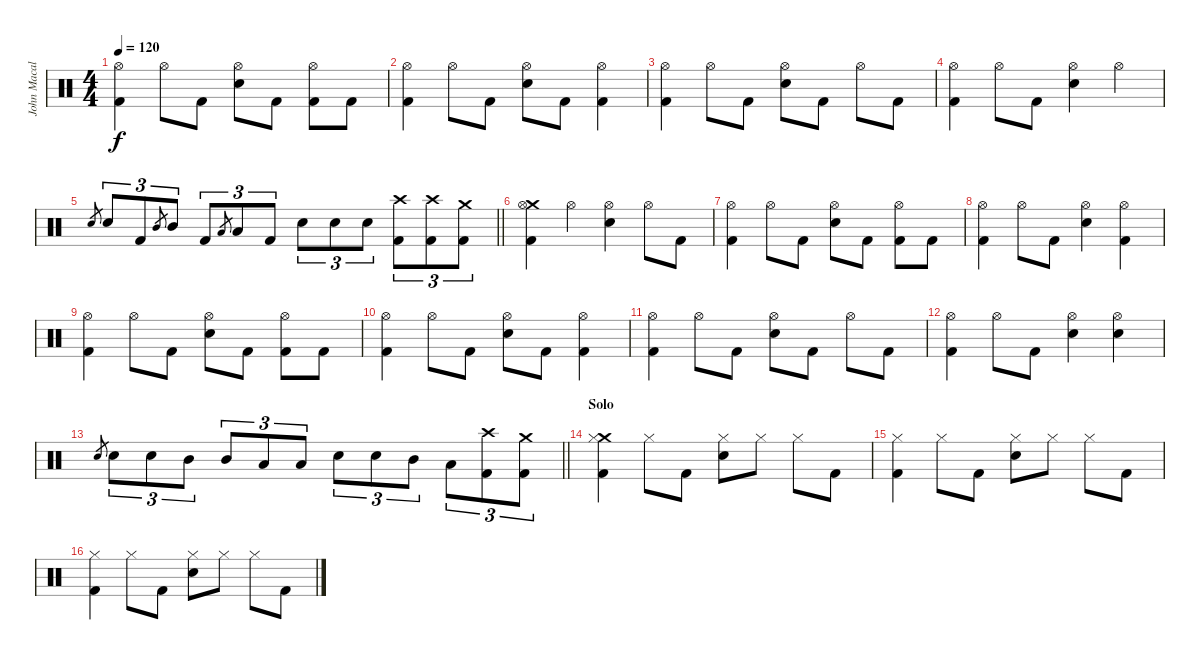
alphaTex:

\track ("John Macaluso" "John Macal") {instrument percussion}
\staff {score}
\articulation defaults
\ts (4 4)
\tempo 120
\clef neutral
\ks c
("Hi-Hat (open)" "Kick (hit) 2").4{dy f} "Hi-Hat (open)".8 "Kick (hit) 2".8 ("Hi-Hat (open)" "Snare (hit) 2").8 "Kick (hit) 2".8 ("Hi-Hat (open)" "Kick (hit) 2").8 "Kick (hit) 2".8 |
("Hi-Hat (open)" "Kick (hit) 2").4 "Hi-Hat (open)".8 "Kick (hit) 2".8 ("Hi-Hat (open)" "Snare (hit) 2").8 "Kick (hit) 2".8 ("Hi-Hat (open)" "Kick (hit) 2").4 |
("Hi-Hat (open)" "Kick (hit) 2").4 "Hi-Hat (open)".8 "Kick (hit) 2".8 ("Hi-Hat (open)" "Snare (hit) 2").8 "Kick (hit) 2".8 "Hi-Hat (open)".8 "Kick (hit) 2".8 |
("Hi-Hat (open)" "Kick (hit) 2").4 "Hi-Hat (open)".8 "Kick (hit) 2".8 ("Hi-Hat (open)" "Snare (hit) 2").4 "Hi-Hat (open)".4 |
\barLineRight lightlight "Snare (hit) 2".8{gr} "Snare (hit) 2".8{tu (3 2)} "Kick (hit) 2".8{tu (3 2)} "Mid Tom (hit)".8{gr} "Mid Tom (hit)".8{tu (3 2)} "Kick (hit) 2".8{tu (3 2)} "Low Tom (hit)".8{gr} "Low Tom (hit)".8{tu (3 2)} "Kick (hit) 2".8{tu (3 2)} "Snare (hit) 2".8{tu (3 2)} "Snare (hit) 2".8{tu (3 2)} "Snare (hit) 2".8{tu (3 2)}
("Crash high (hit)" "Kick (hit) 2").8{tu (3 2)} ("Crash high (hit)" "Kick (hit) 2").8{tu (3 2)} ("Crash medium (hit)" "Kick (hit) 2").8{tu (3 2)} |
("Crash medium (hit)" "Hi-Hat (open)" "Kick (hit) 2").4 "Hi-Hat (open)".4 ("Hi-Hat (open)" "Snare (hit) 2").4 "Hi-Hat (open)".8 "Kick (hit) 2".8 |
("Hi-Hat (open)" "Kick (hit) 2").4 "Hi-Hat (open)".8 "Kick (hit) 2".8 ("Hi-Hat (open)" "Snare (hit) 2").8 "Kick (hit) 2".8 ("Hi-Hat (open)" "Kick (hit) 2").8 "Kick (hit) 2".8 |
("Hi-Hat (open)" "Kick (hit) 2").4 "Hi-Hat (open)".8 "Kick (hit) 2".8 ("Hi-Hat (open)" "Snare (hit) 2").4 ("Hi-Hat (open)" "Kick (hit) 2").4 |
("Hi-Hat (open)" "Kick (hit) 2").4 "Hi-Hat (open)".8 "Kick (hit) 2".8 ("Hi-Hat (open)" "Snare (hit) 2").8 "Kick (hit) 2".8 ("Hi-Hat (open)" "Kick (hit) 2").8 "Kick (hit) 2".8 |
("Hi-Hat (open)" "Kick (hit) 2").4 "Hi-Hat (open)".8 "Kick (hit) 2".8 ("Hi-Hat (open)" "Snare (hit) 2").8 "Kick (hit) 2".8 ("Hi-Hat (open)" "Kick (hit) 2").4 |
("Hi-Hat (open)" "Kick (hit) 2").4 "Hi-Hat (open)".8 "Kick (hit) 2".8 ("Hi-Hat (open)" "Snare (hit) 2").8 "Kick (hit) 2".8 "Hi-Hat (open)".8 "Kick (hit) 2".8 |
("Hi-Hat (open)" "Kick (hit) 2").4 "Hi-Hat (open)".8 "Kick (hit) 2".8 ("Hi-Hat (open)" "Snare (hit) 2").4 ("Hi-Hat (open)" "Snare (hit) 2").4 |
\barLineRight lightlight "Snare (hit) 2".8{gr} "Snare (hit) 2".8{tu (3 2)} "Snare (hit) 2".8{tu (3 2)} "Mid Tom (hit)".8{tu (3 2)} "Mid Tom (hit)".8{tu (3 2)} "Low Tom (hit)".8{tu (3 2)} "Low Tom (hit)".8{tu (3 2)} "Snare (hit) 2".8{tu (3 2)} "Snare (hit) 2".8{tu (3 2)} "Mid Tom (hit)".8{tu (3 2)} "Low Tom (hit)".8{tu (3 2)}
("Crash high (hit)" "Kick (hit) 2").8{tu (3 2)} ("Crash medium (hit)" "Kick (hit) 2").8{tu (3 2)} |
\section ("" "Solo")
("Crash medium (hit)" "Hi-Hat (closed)" "Kick (hit) 2").4 "Hi-Hat (closed)".8 "Kick (hit) 2".8 ("Hi-Hat (closed)" "Snare (hit) 2").8 "Hi-Hat (closed)".8 "Hi-Hat (closed)".8 "Kick (hit) 2".8 |
("Hi-Hat (closed)" "Kick (hit) 2").4 "Hi-Hat (closed)".8 "Kick (hit) 2".8 ("Hi-Hat (closed)" "Snare (hit) 2").8 "Hi-Hat (closed)".8 "Hi-Hat (closed)".8 "Kick (hit) 2".8 |
("Hi-Hat (closed)" "Kick (hit) 2").4 "Hi-Hat (closed)".8 "Kick (hit) 2".8 ("Hi-Hat (closed)" "Snare (hit) 2").8 "Hi-Hat (closed)".8 "Hi-Hat (closed)".8 "Kick (hit) 2".8
